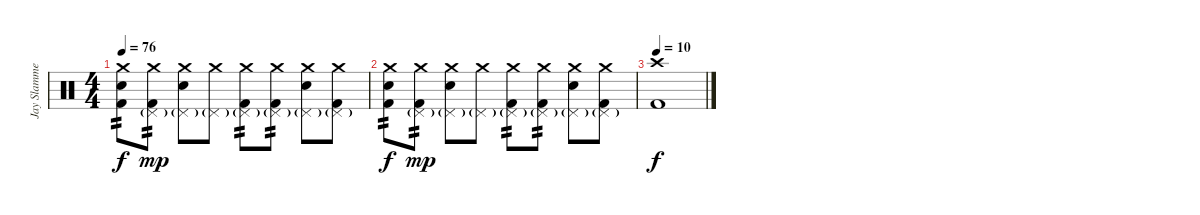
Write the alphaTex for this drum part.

\track ("Jay Slammer" "Jay Slamme") {instrument percussion}
\staff {score}
\articulation defaults
\ts (4 4)
\tempo 76
\clef neutral
\ks c
("Snare (hit)" "Crash medium (hit)" "Kick (hit) 2").8{tp 2 dy f} ("Pedal Hi-Hat (hit)"{g} "Crash medium (hit)" "Kick (hit) 2").8{tp 2 dy mp} ("Pedal Hi-Hat (hit)"{g} "Crash medium (hit)" "Electric Snare (hit)").8 ("Pedal Hi-Hat (hit)"{g} "Crash medium (hit)").8 ("Pedal Hi-Hat (hit)"{g} "Crash medium (hit)" "Kick (hit) 2").8{tp 2} ("Pedal Hi-Hat (hit)"{g} "Crash medium (hit)" "Kick (hit) 2").8{tp 2} ("Pedal Hi-Hat (hit)"{g} "Crash medium (hit)" "Electric Snare (hit)").8 ("Pedal Hi-Hat (hit)"{g} "Crash medium (hit)" "Kick (hit) 2").8 |
("Snare (hit)" "Crash medium (hit)" "Kick (hit) 2").8{tp 2 dy f} ("Pedal Hi-Hat (hit)"{g} "Crash medium (hit)" "Kick (hit) 2").8{tp 2 dy mp} ("Pedal Hi-Hat (hit)"{g} "Crash medium (hit)" "Electric Snare (hit)").8 ("Pedal Hi-Hat (hit)"{g} "Crash medium (hit)").8 ("Pedal Hi-Hat (hit)"{g} "Crash medium (hit)" "Kick (hit) 2").8{tp 2} ("Pedal Hi-Hat (hit)"{g} "Crash medium (hit)" "Kick (hit) 2").8{tp 2} ("Pedal Hi-Hat (hit)"{g} "Crash medium (hit)" "Electric Snare (hit)").8 ("Pedal Hi-Hat (hit)"{g} "Crash medium (hit)" "Kick (hit) 2").8 |
\tempo 10
("Crash high (hit)" "Kick (hit) 2").1{dy f}
